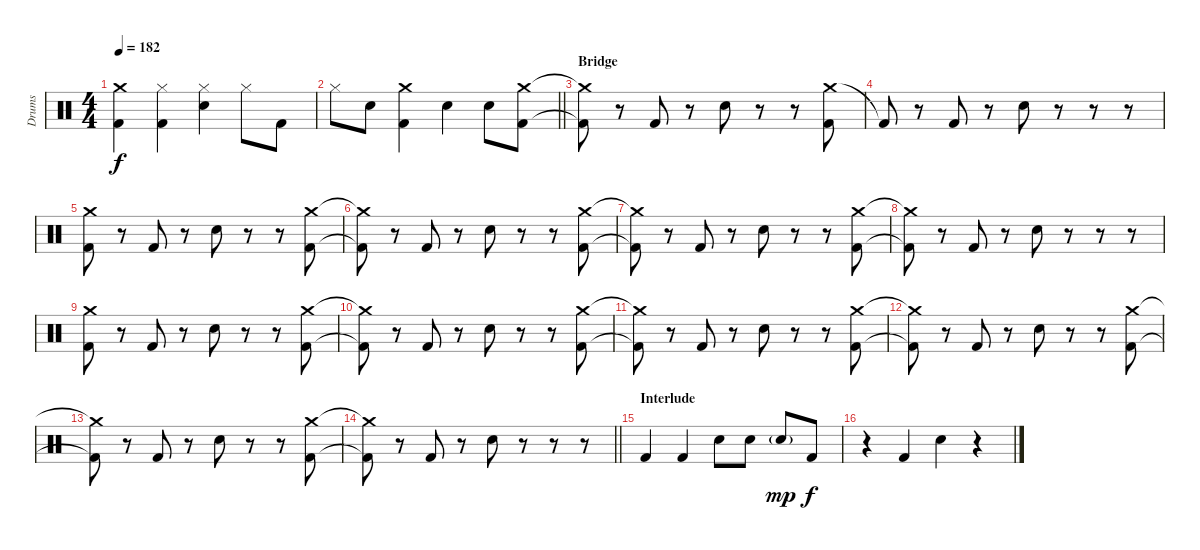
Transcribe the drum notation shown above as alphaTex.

\track ("Drums" "Drums") {instrument percussion}
\staff {score}
\articulation defaults
\ts (4 4)
\tempo 182
\clef neutral
\ks c
("Crash medium (hit)" "Kick (hit) 2").4{dy f} ("Hi-Hat (closed)" "Kick (hit) 2").4 ("Hi-Hat (closed)" "Snare (hit) 2").4 "Hi-Hat (closed)".8 "Kick (hit) 2".8 |
\barLineRight lightlight "Hi-Hat (closed)".8 "Snare (hit) 2".8
("Crash medium (hit)" "Kick (hit) 2").4 "Snare (hit) 2".4 "Snare (hit) 2".8 ("Crash medium (hit)" "Kick (hit) 2").8 |
\section ("" "Bridge")
("Crash medium (hit)"{t} "Kick (hit) 2"{t}).8 r.8 "Kick (hit) 2".8 r.8 "Snare (hit) 2".8 r.8 r.8 ("Crash medium (hit)" "Kick (hit) 2").8 |
"Kick (hit) 2"{t}.8 r.8 "Kick (hit) 2".8 r.8 "Snare (hit) 2".8 r.8 r.8 r.8 |
("Crash medium (hit)" "Kick (hit) 2").8 r.8 "Kick (hit) 2".8 r.8 "Snare (hit) 2".8 r.8 r.8 ("Crash medium (hit)" "Kick (hit) 2").8 |
("Crash medium (hit)"{t} "Kick (hit) 2"{t}).8 r.8 "Kick (hit) 2".8 r.8 "Snare (hit) 2".8 r.8 r.8 ("Crash medium (hit)" "Kick (hit) 2").8 |
("Crash medium (hit)"{t} "Kick (hit) 2"{t}).8 r.8 "Kick (hit) 2".8 r.8 "Snare (hit) 2".8 r.8 r.8 ("Crash medium (hit)" "Kick (hit) 2").8 |
("Crash medium (hit)"{t} "Kick (hit) 2"{t}).8 r.8 "Kick (hit) 2".8 r.8 "Snare (hit) 2".8 r.8 r.8 r.8 |
("Crash medium (hit)" "Kick (hit) 2").8 r.8 "Kick (hit) 2".8 r.8 "Snare (hit) 2".8 r.8 r.8 ("Crash medium (hit)" "Kick (hit) 2").8 |
("Crash medium (hit)"{t} "Kick (hit) 2"{t}).8 r.8 "Kick (hit) 2".8 r.8 "Snare (hit) 2".8 r.8 r.8 ("Crash medium (hit)" "Kick (hit) 2").8 |
("Crash medium (hit)"{t} "Kick (hit) 2"{t}).8 r.8 "Kick (hit) 2".8 r.8 "Snare (hit) 2".8 r.8 r.8 ("Crash medium (hit)" "Kick (hit) 2").8 |
("Crash medium (hit)"{t} "Kick (hit) 2"{t}).8 r.8 "Kick (hit) 2".8 r.8 "Snare (hit) 2".8 r.8 r.8 ("Crash medium (hit)" "Kick (hit) 2").8 |
("Crash medium (hit)"{t} "Kick (hit) 2"{t}).8 r.8 "Kick (hit) 2".8 r.8 "Snare (hit) 2".8 r.8 r.8 ("Crash medium (hit)" "Kick (hit) 2").8 |
\barLineRight lightlight
("Crash medium (hit)"{t} "Kick (hit) 2"{t}).8 r.8 "Kick (hit) 2".8 r.8 "Snare (hit) 2".8 r.8 r.8 r.8 |
\section ("" "Interlude")
"Kick (hit) 2".4 "Kick (hit) 2".4 "Snare (hit) 2".8 "Snare (hit) 2".8 "Snare (hit) 2"{g}.8{dy mp} "Kick (hit) 2".8{dy f} |
r.4 "Kick (hit) 2".4 "Snare (hit) 2".4 r.4
